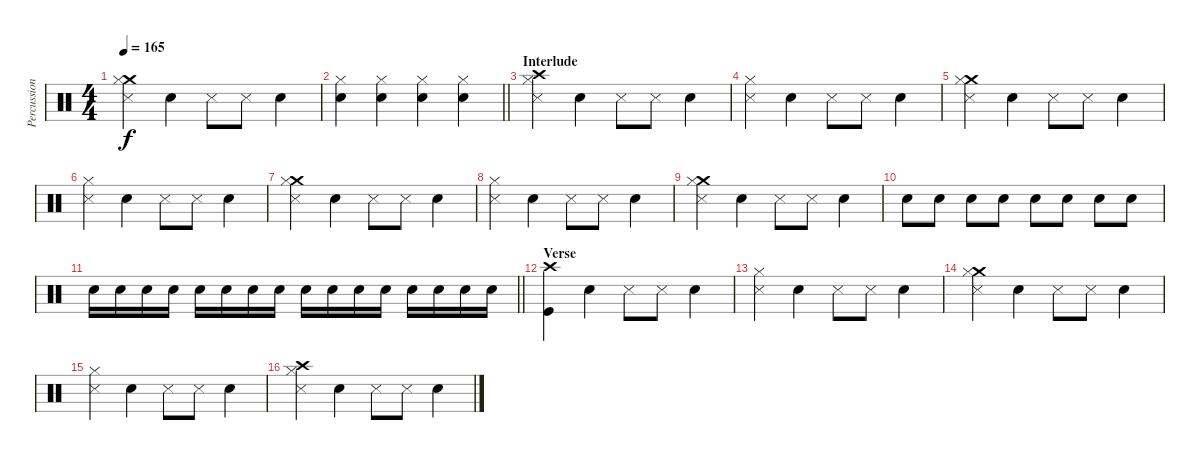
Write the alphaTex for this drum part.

\track ("Percussion" "Percussion") {instrument percussion}
\staff {score}
\articulation defaults
\ts (4 4)
\tempo 165
\clef neutral
\ks c
("Metronome (hit)" "Crash medium (hit)" "Hi-Hat (closed)").4{dy f} "Electric Snare (hit)".4 "Metronome (hit)".8 "Metronome (hit)".8 "Electric Snare (hit)".4 |
\barLineRight lightlight
("Hi-Hat (closed)" "Electric Snare (hit)").4 ("Hi-Hat (closed)" "Electric Snare (hit)").4 ("Hi-Hat (closed)" "Electric Snare (hit)").4 ("Hi-Hat (closed)" "Electric Snare (hit)").4 |
\section ("" "Interlude")
("Metronome (hit)" "Crash high (hit)" "Hi-Hat (closed)").4 "Electric Snare (hit)".4 "Metronome (hit)".8 "Metronome (hit)".8 "Electric Snare (hit)".4 |
("Metronome (hit)" "Hi-Hat (closed)").4 "Electric Snare (hit)".4 "Metronome (hit)".8 "Metronome (hit)".8 "Electric Snare (hit)".4 |
("Metronome (hit)" "Crash medium (hit)" "Hi-Hat (closed)").4 "Electric Snare (hit)".4 "Metronome (hit)".8 "Metronome (hit)".8 "Electric Snare (hit)".4 |
("Metronome (hit)" "Hi-Hat (closed)").4 "Electric Snare (hit)".4 "Metronome (hit)".8 "Metronome (hit)".8 "Electric Snare (hit)".4 |
("Metronome (hit)" "Crash medium (hit)" "Hi-Hat (closed)").4 "Electric Snare (hit)".4 "Metronome (hit)".8 "Metronome (hit)".8 "Electric Snare (hit)".4 |
("Metronome (hit)" "Hi-Hat (closed)").4 "Electric Snare (hit)".4 "Metronome (hit)".8 "Metronome (hit)".8 "Electric Snare (hit)".4 |
("Metronome (hit)" "Crash medium (hit)" "Hi-Hat (closed)").4 "Electric Snare (hit)".4 "Metronome (hit)".8 "Metronome (hit)".8 "Electric Snare (hit)".4 |
"Electric Snare (hit)".8 "Electric Snare (hit)".8 "Electric Snare (hit)".8 "Electric Snare (hit)".8 "Electric Snare (hit)".8 "Electric Snare (hit)".8 "Electric Snare (hit)".8 "Electric Snare (hit)".8 |
\barLineRight lightlight "Electric Snare (hit)".16 "Electric Snare (hit)".16 "Electric Snare (hit)".16 "Electric Snare (hit)".16 "Electric Snare (hit)".16 "Electric Snare (hit)".16 "Electric Snare (hit)".16 "Electric Snare (hit)".16 "Electric Snare (hit)".16 "Electric Snare (hit)".16 "Electric Snare (hit)".16 "Electric Snare (hit)".16 "Electric Snare (hit)".16 "Electric Snare (hit)".16 "Electric Snare (hit)".16 "Electric Snare (hit)".16
|
\section ("" "Verse")
("Kick (hit)" "Crash high (hit)").4 "Electric Snare (hit)".4 "Metronome (hit)".8 "Metronome (hit)".8 "Electric Snare (hit)".4 |
("Metronome (hit)" "Hi-Hat (closed)").4 "Electric Snare (hit)".4 "Metronome (hit)".8 "Metronome (hit)".8 "Electric Snare (hit)".4 |
("Metronome (hit)" "Crash medium (hit)" "Hi-Hat (closed)").4 "Electric Snare (hit)".4 "Metronome (hit)".8 "Metronome (hit)".8 "Electric Snare (hit)".4 |
("Metronome (hit)" "Hi-Hat (closed)").4 "Electric Snare (hit)".4 "Metronome (hit)".8 "Metronome (hit)".8 "Electric Snare (hit)".4 |
("Metronome (hit)" "Crash high (hit)" "Hi-Hat (closed)").4 "Electric Snare (hit)".4 "Metronome (hit)".8 "Metronome (hit)".8 "Electric Snare (hit)".4
